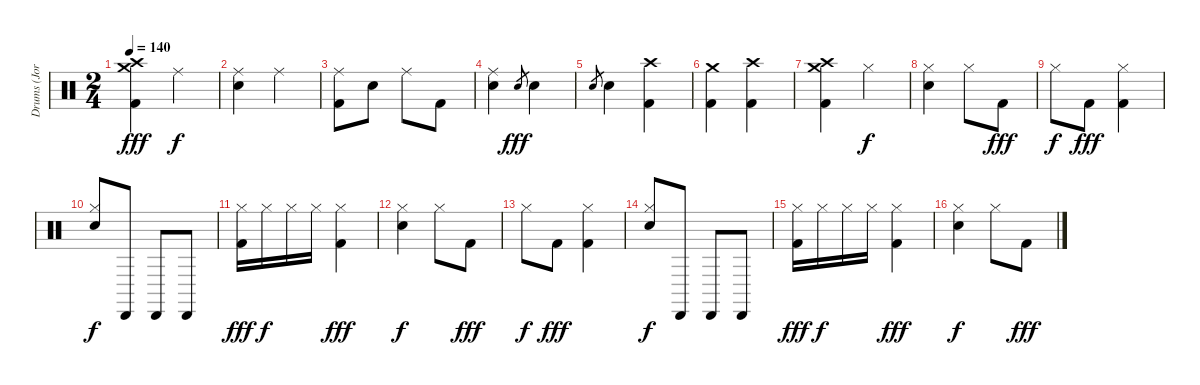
\track ("Drums (Jordan Hastings)" "Drums (Jor") {instrument percussion}
\staff {score}
\articulation defaults
\ts (2 4)
\tempo 140
\clef neutral
\ks c
("Crash medium (hit)" "Crash high (hit)" "Kick (hit) 2").4{dy fff} "Ride (middle)".4{dy f} |
("Ride (middle)" "Electric Snare (hit)").4 "Ride (middle)".4 |
("Ride (middle)" "Kick (hit) 2").8 "Electric Snare (hit)".8 "Ride (middle)".8 "Kick (hit) 2".8 |
("Ride (middle)" "Electric Snare (hit)").4 "Electric Snare (hit)".8{gr dy fff} "Electric Snare (hit)".4 |
"Electric Snare (hit)".8{gr} "Electric Snare (hit)".4 ("Crash high (hit)" "Kick (hit) 2").4 |
("Crash medium (hit)" "Kick (hit) 2").4 ("Crash high (hit)" "Kick (hit) 2").4 |
("Crash medium (hit)" "Crash high (hit)" "Kick (hit) 2").4 "Hi-Hat (closed)".4{dy f} |
("Hi-Hat (closed)" "Electric Snare (hit)").4 "Hi-Hat (closed)".8 "Kick (hit) 2".8{dy fff} |
"Hi-Hat (closed)".8{dy f} "Kick (hit) 2".8{dy fff} ("Hi-Hat (closed)" "Kick (hit) 2").4 |
("Hi-Hat (closed)" "Electric Snare (hit)").8{dy f} "Cabasa (hit)".8 "Cabasa (hit)".8 "Cabasa (hit)".8 |
("Hi-Hat (closed)" "Kick (hit) 2").16{dy fff} "Hi-Hat (closed)".16{dy f} "Hi-Hat (closed)".16 "Hi-Hat (closed)".16 ("Hi-Hat (closed)" "Kick (hit) 2").4{dy fff} |
("Hi-Hat (closed)" "Electric Snare (hit)").4{dy f} "Hi-Hat (closed)".8 "Kick (hit) 2".8{dy fff} |
"Hi-Hat (closed)".8{dy f} "Kick (hit) 2".8{dy fff} ("Hi-Hat (closed)" "Kick (hit) 2").4 |
("Hi-Hat (closed)" "Electric Snare (hit)").8{dy f} "Cabasa (hit)".8 "Cabasa (hit)".8 "Cabasa (hit)".8 |
("Hi-Hat (closed)" "Kick (hit) 2").16{dy fff} "Hi-Hat (closed)".16{dy f} "Hi-Hat (closed)".16 "Hi-Hat (closed)".16 ("Hi-Hat (closed)" "Kick (hit) 2").4{dy fff} |
("Hi-Hat (closed)" "Electric Snare (hit)").4{dy f} "Hi-Hat (closed)".8 "Kick (hit) 2".8{dy fff}
